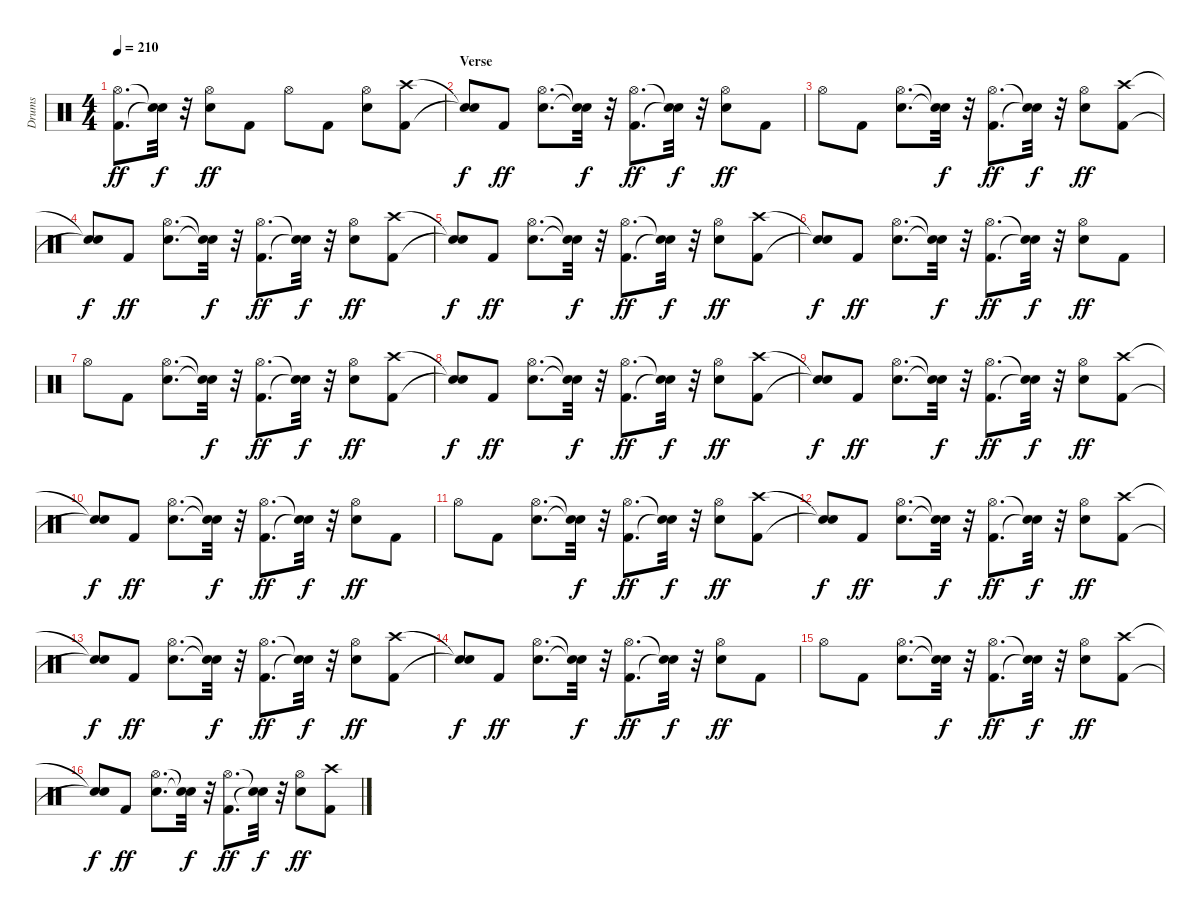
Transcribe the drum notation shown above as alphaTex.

\track ("Drums" "Drums") {instrument percussion}
\staff {score}
\articulation defaults
\ts (4 4)
\tempo 210
\clef neutral
\ks c
("Kick (hit) 2" "Hi-Hat (open)").8{d dy ff} ("Snare (hit)"{t} "Snare (hit)"{t}).32{dy f} r.32 ("Snare (hit) 2" "Hi-Hat (open)").8{dy ff} "Kick (hit) 2".8 "Hi-Hat (open)".8 "Kick (hit) 2".8 ("Snare (hit) 2" "Hi-Hat (open)").8 ("Kick (hit) 2" "Crash high (hit)").8 |
\section ("" "Verse")
("Snare (hit)"{t} "Snare (hit)"{t}).8{dy f} "Kick (hit) 2".8{dy ff} ("Snare (hit) 2" "Hi-Hat (open)").8{d} ("Snare (hit)"{t} "Snare (hit)"{t}).32{dy f} r.32 ("Kick (hit) 2" "Hi-Hat (open)").8{d dy ff} ("Snare (hit)"{t} "Snare (hit)"{t}).32{dy f} r.32 ("Snare (hit) 2" "Hi-Hat (open)").8{dy ff} "Kick (hit) 2".8 |
"Hi-Hat (open)".8 "Kick (hit) 2".8 ("Snare (hit) 2" "Hi-Hat (open)").8{d} ("Snare (hit)"{t} "Snare (hit)"{t}).32{dy f} r.32 ("Kick (hit) 2" "Hi-Hat (open)").8{d dy ff} ("Snare (hit)"{t} "Snare (hit)"{t}).32{dy f} r.32 ("Snare (hit) 2" "Hi-Hat (open)").8{dy ff} ("Kick (hit) 2" "Crash high (hit)").8 |
("Snare (hit)"{t} "Snare (hit)"{t}).8{dy f} "Kick (hit) 2".8{dy ff} ("Snare (hit) 2" "Hi-Hat (open)").8{d} ("Snare (hit)"{t} "Snare (hit)"{t}).32{dy f} r.32 ("Kick (hit) 2" "Hi-Hat (open)").8{d dy ff} ("Snare (hit)"{t} "Snare (hit)"{t}).32{dy f} r.32 ("Snare (hit) 2" "Hi-Hat (open)").8{dy ff} ("Kick (hit) 2" "Crash high (hit)").8 |
("Snare (hit)"{t} "Snare (hit)"{t}).8{dy f} "Kick (hit) 2".8{dy ff} ("Snare (hit) 2" "Hi-Hat (open)").8{d} ("Snare (hit)"{t} "Snare (hit)"{t}).32{dy f} r.32 ("Kick (hit) 2" "Hi-Hat (open)").8{d dy ff} ("Snare (hit)"{t} "Snare (hit)"{t}).32{dy f} r.32 ("Snare (hit) 2" "Hi-Hat (open)").8{dy ff} ("Kick (hit) 2" "Crash high (hit)").8 |
("Snare (hit)"{t} "Snare (hit)"{t}).8{dy f} "Kick (hit) 2".8{dy ff} ("Snare (hit) 2" "Hi-Hat (open)").8{d} ("Snare (hit)"{t} "Snare (hit)"{t}).32{dy f} r.32 ("Kick (hit) 2" "Hi-Hat (open)").8{d dy ff} ("Snare (hit)"{t} "Snare (hit)"{t}).32{dy f} r.32 ("Snare (hit) 2" "Hi-Hat (open)").8{dy ff} "Kick (hit) 2".8 |
"Hi-Hat (open)".8 "Kick (hit) 2".8 ("Snare (hit) 2" "Hi-Hat (open)").8{d} ("Snare (hit)"{t} "Snare (hit)"{t}).32{dy f} r.32 ("Kick (hit) 2" "Hi-Hat (open)").8{d dy ff} ("Snare (hit)"{t} "Snare (hit)"{t}).32{dy f} r.32 ("Snare (hit) 2" "Hi-Hat (open)").8{dy ff} ("Kick (hit) 2" "Crash high (hit)").8 |
("Snare (hit)"{t} "Snare (hit)"{t}).8{dy f} "Kick (hit) 2".8{dy ff} ("Snare (hit) 2" "Hi-Hat (open)").8{d} ("Snare (hit)"{t} "Snare (hit)"{t}).32{dy f} r.32 ("Kick (hit) 2" "Hi-Hat (open)").8{d dy ff} ("Snare (hit)"{t} "Snare (hit)"{t}).32{dy f} r.32 ("Snare (hit) 2" "Hi-Hat (open)").8{dy ff} ("Kick (hit) 2" "Crash high (hit)").8 |
("Snare (hit)"{t} "Snare (hit)"{t}).8{dy f} "Kick (hit) 2".8{dy ff} ("Snare (hit) 2" "Hi-Hat (open)").8{d} ("Snare (hit)"{t} "Snare (hit)"{t}).32{dy f} r.32 ("Kick (hit) 2" "Hi-Hat (open)").8{d dy ff} ("Snare (hit)"{t} "Snare (hit)"{t}).32{dy f} r.32 ("Snare (hit) 2" "Hi-Hat (open)").8{dy ff} ("Kick (hit) 2" "Crash high (hit)").8 |
("Snare (hit)"{t} "Snare (hit)"{t}).8{dy f} "Kick (hit) 2".8{dy ff} ("Snare (hit) 2" "Hi-Hat (open)").8{d} ("Snare (hit)"{t} "Snare (hit)"{t}).32{dy f} r.32 ("Kick (hit) 2" "Hi-Hat (open)").8{d dy ff} ("Snare (hit)"{t} "Snare (hit)"{t}).32{dy f} r.32 ("Snare (hit) 2" "Hi-Hat (open)").8{dy ff} "Kick (hit) 2".8 |
"Hi-Hat (open)".8 "Kick (hit) 2".8 ("Snare (hit) 2" "Hi-Hat (open)").8{d} ("Snare (hit)"{t} "Snare (hit)"{t}).32{dy f} r.32 ("Kick (hit) 2" "Hi-Hat (open)").8{d dy ff} ("Snare (hit)"{t} "Snare (hit)"{t}).32{dy f} r.32 ("Snare (hit) 2" "Hi-Hat (open)").8{dy ff} ("Kick (hit) 2" "Crash high (hit)").8 |
("Snare (hit)"{t} "Snare (hit)"{t}).8{dy f} "Kick (hit) 2".8{dy ff} ("Snare (hit) 2" "Hi-Hat (open)").8{d} ("Snare (hit)"{t} "Snare (hit)"{t}).32{dy f} r.32 ("Kick (hit) 2" "Hi-Hat (open)").8{d dy ff} ("Snare (hit)"{t} "Snare (hit)"{t}).32{dy f} r.32 ("Snare (hit) 2" "Hi-Hat (open)").8{dy ff} ("Kick (hit) 2" "Crash high (hit)").8 |
("Snare (hit)"{t} "Snare (hit)"{t}).8{dy f} "Kick (hit) 2".8{dy ff} ("Snare (hit) 2" "Hi-Hat (open)").8{d} ("Snare (hit)"{t} "Snare (hit)"{t}).32{dy f} r.32 ("Kick (hit) 2" "Hi-Hat (open)").8{d dy ff} ("Snare (hit)"{t} "Snare (hit)"{t}).32{dy f} r.32 ("Snare (hit) 2" "Hi-Hat (open)").8{dy ff} ("Kick (hit) 2" "Crash high (hit)").8 |
("Snare (hit)"{t} "Snare (hit)"{t}).8{dy f} "Kick (hit) 2".8{dy ff} ("Snare (hit) 2" "Hi-Hat (open)").8{d} ("Snare (hit)"{t} "Snare (hit)"{t}).32{dy f} r.32 ("Kick (hit) 2" "Hi-Hat (open)").8{d dy ff} ("Snare (hit)"{t} "Snare (hit)"{t}).32{dy f} r.32 ("Snare (hit) 2" "Hi-Hat (open)").8{dy ff} "Kick (hit) 2".8 |
"Hi-Hat (open)".8 "Kick (hit) 2".8 ("Snare (hit) 2" "Hi-Hat (open)").8{d} ("Snare (hit)"{t} "Snare (hit)"{t}).32{dy f} r.32 ("Kick (hit) 2" "Hi-Hat (open)").8{d dy ff} ("Snare (hit)"{t} "Snare (hit)"{t}).32{dy f} r.32 ("Snare (hit) 2" "Hi-Hat (open)").8{dy ff} ("Kick (hit) 2" "Crash high (hit)").8 |
("Snare (hit)"{t} "Snare (hit)"{t}).8{dy f} "Kick (hit) 2".8{dy ff} ("Snare (hit) 2" "Hi-Hat (open)").8{d} ("Snare (hit)"{t} "Snare (hit)"{t}).32{dy f} r.32 ("Kick (hit) 2" "Hi-Hat (open)").8{d dy ff} ("Snare (hit)"{t} "Snare (hit)"{t}).32{dy f} r.32 ("Snare (hit) 2" "Hi-Hat (open)").8{dy ff} ("Kick (hit) 2" "Crash high (hit)").8
